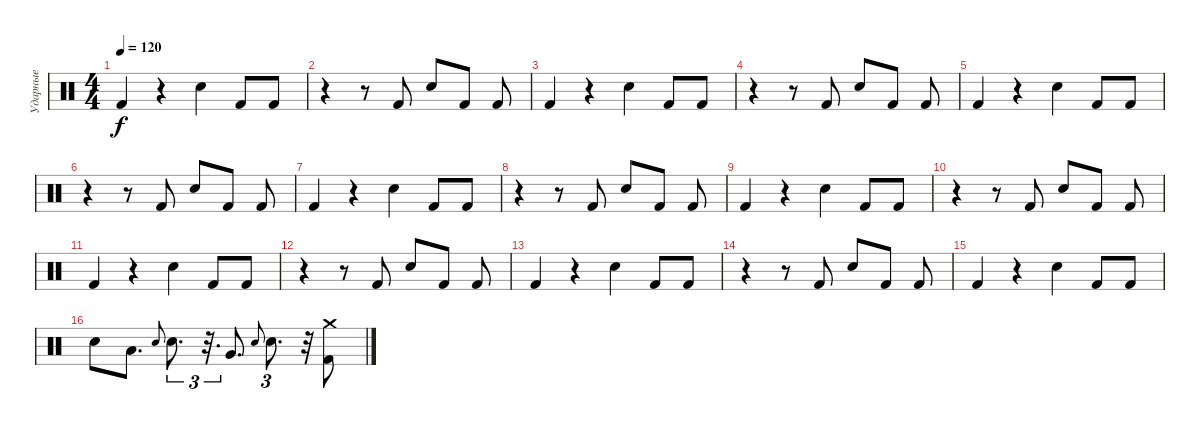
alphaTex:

\track ("Ударные" "Ударные") {instrument percussion}
\staff {score}
\articulation defaults
\ts (4 4)
\tempo 120
\clef neutral
\ks c "Kick (hit) 2".4{dy f}
r.4 "Electric Snare (hit)".4 "Kick (hit) 2".8 "Kick (hit) 2".8 |
r.4 r.8 "Kick (hit) 2".8 "Electric Snare (hit)".8 "Kick (hit) 2".8 "Kick (hit) 2".8 |
"Kick (hit) 2".4 r.4 "Electric Snare (hit)".4 "Kick (hit) 2".8 "Kick (hit) 2".8 |
r.4 r.8 "Kick (hit) 2".8 "Electric Snare (hit)".8 "Kick (hit) 2".8 "Kick (hit) 2".8 |
"Kick (hit) 2".4 r.4 "Electric Snare (hit)".4 "Kick (hit) 2".8 "Kick (hit) 2".8 |
r.4 r.8 "Kick (hit) 2".8 "Electric Snare (hit)".8 "Kick (hit) 2".8 "Kick (hit) 2".8 |
"Kick (hit) 2".4 r.4 "Electric Snare (hit)".4 "Kick (hit) 2".8 "Kick (hit) 2".8 |
r.4 r.8 "Kick (hit) 2".8 "Electric Snare (hit)".8 "Kick (hit) 2".8 "Kick (hit) 2".8 |
"Kick (hit) 2".4 r.4 "Electric Snare (hit)".4 "Kick (hit) 2".8 "Kick (hit) 2".8 |
r.4 r.8 "Kick (hit) 2".8 "Electric Snare (hit)".8 "Kick (hit) 2".8 "Kick (hit) 2".8 |
"Kick (hit) 2".4 r.4 "Electric Snare (hit)".4 "Kick (hit) 2".8 "Kick (hit) 2".8 |
r.4 r.8 "Kick (hit) 2".8 "Electric Snare (hit)".8 "Kick (hit) 2".8 "Kick (hit) 2".8 |
"Kick (hit) 2".4 r.4 "Electric Snare (hit)".4 "Kick (hit) 2".8 "Kick (hit) 2".8 |
r.4 r.8 "Kick (hit) 2".8 "Electric Snare (hit)".8 "Kick (hit) 2".8 "Kick (hit) 2".8 |
"Kick (hit) 2".4 r.4 "Electric Snare (hit)".4 "Kick (hit) 2".8 "Kick (hit) 2".8 |
"Electric Snare (hit)".8 "Low Tom (hit)".8{d} "Electric Snare (hit)".8{gr onbeat} "Electric Snare (hit)".8{d tu (3 2)} r.32{d tu (3 2)} "Very Low Tom (hit)".8{d} "Electric Snare (hit)".8{gr onbeat} "Electric Snare (hit)".8{d tu (3 2)} r.32 ("Kick (hit) 2" "Crash medium (hit)").8
